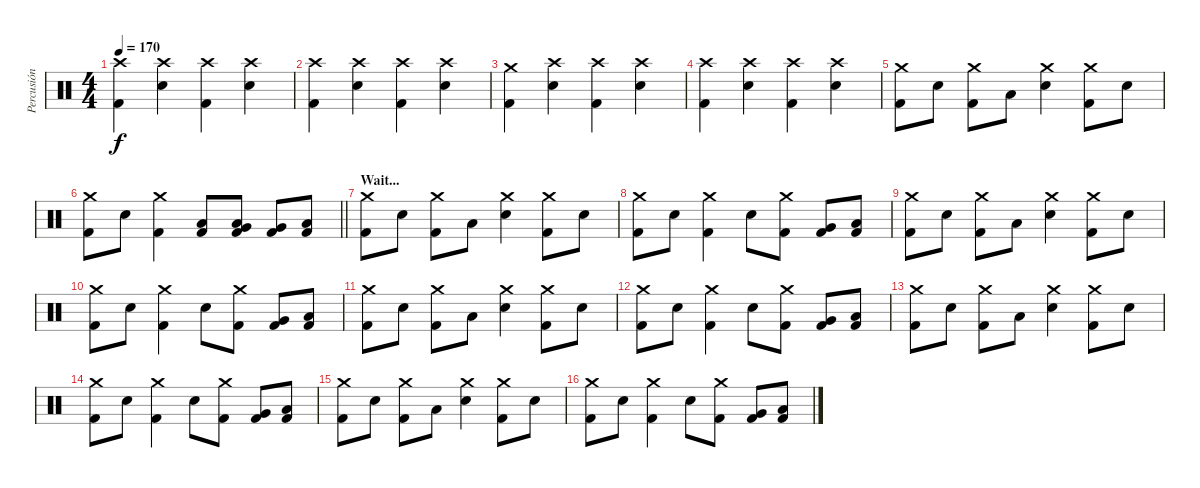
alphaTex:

\track ("Percusión" "Percusión") {instrument percussion}
\staff {score}
\articulation defaults
\ts (4 4)
\tempo 170
\clef neutral
\ks c
("Crash high (hit)" "Kick (hit) 2").4{dy f} ("Crash high (hit)" "Snare (hit) 2").4 ("Crash high (hit)" "Kick (hit) 2").4 ("Crash high (hit)" "Snare (hit) 2").4 |
("Crash high (hit)" "Kick (hit) 2").4 ("Crash high (hit)" "Snare (hit) 2").4 ("Crash high (hit)" "Kick (hit) 2").4 ("Crash high (hit)" "Snare (hit) 2").4 |
("Crash medium (hit)" "Kick (hit) 2").4 ("Crash high (hit)" "Snare (hit) 2").4 ("Crash high (hit)" "Kick (hit) 2").4 ("Crash high (hit)" "Snare (hit) 2").4 |
("Crash high (hit)" "Kick (hit) 2").4 ("Crash high (hit)" "Snare (hit) 2").4 ("Crash high (hit)" "Kick (hit) 2").4 ("Crash high (hit)" "Snare (hit) 2").4 |
("Crash medium (hit)" "Kick (hit) 2").8 "Snare (hit) 2".8 ("Crash medium (hit)" "Kick (hit) 2").8 "Low Floor Tom (hit)".8 ("Crash medium (hit)" "Snare (hit) 2").4 ("Crash medium (hit)" "Kick (hit) 2").8 "Snare (hit) 2".8 |
\barLineRight lightlight
("Crash medium (hit)" "Kick (hit) 2").8 "Snare (hit) 2".8 ("Crash medium (hit)" "Kick (hit) 2").4 ("Low Tom (hit)" "Kick (hit) 2").8 ("Low Tom (hit)" "Very Low Tom (hit)" "Kick (hit) 2").8 ("Very Low Tom (hit)" "Kick (hit) 2").8 ("Low Floor Tom (hit)" "Kick (hit) 2").8 |
\section ("" "Wait...")
("Crash medium (hit)" "Kick (hit) 2").8 "Snare (hit) 2".8 ("Crash medium (hit)" "Kick (hit) 2").8 "Low Floor Tom (hit)".8 ("Crash medium (hit)" "Snare (hit) 2").4 ("Crash medium (hit)" "Kick (hit) 2").8 "Snare (hit) 2".8 |
("Crash medium (hit)" "Kick (hit) 2").8 "Snare (hit) 2".8 ("Crash medium (hit)" "Kick (hit) 2").4 "Snare (hit) 2".8 ("Crash medium (hit)" "Kick (hit) 2").8 ("Very Low Tom (hit)" "Kick (hit) 2").8 ("Low Floor Tom (hit)" "Kick (hit) 2").8 |
("Crash medium (hit)" "Kick (hit) 2").8 "Snare (hit) 2".8 ("Crash medium (hit)" "Kick (hit) 2").8 "Low Floor Tom (hit)".8 ("Crash medium (hit)" "Snare (hit) 2").4 ("Crash medium (hit)" "Kick (hit) 2").8 "Snare (hit) 2".8 |
("Crash medium (hit)" "Kick (hit) 2").8 "Snare (hit) 2".8 ("Crash medium (hit)" "Kick (hit) 2").4 "Snare (hit) 2".8 ("Crash medium (hit)" "Kick (hit) 2").8 ("Very Low Tom (hit)" "Kick (hit) 2").8 ("Low Floor Tom (hit)" "Kick (hit) 2").8 |
("Crash medium (hit)" "Kick (hit) 2").8 "Snare (hit) 2".8 ("Crash medium (hit)" "Kick (hit) 2").8 "Low Floor Tom (hit)".8 ("Crash medium (hit)" "Snare (hit) 2").4 ("Crash medium (hit)" "Kick (hit) 2").8 "Snare (hit) 2".8 |
("Crash medium (hit)" "Kick (hit) 2").8 "Snare (hit) 2".8 ("Crash medium (hit)" "Kick (hit) 2").4 "Snare (hit) 2".8 ("Crash medium (hit)" "Kick (hit) 2").8 ("Very Low Tom (hit)" "Kick (hit) 2").8 ("Low Floor Tom (hit)" "Kick (hit) 2").8 |
("Crash medium (hit)" "Kick (hit) 2").8 "Snare (hit) 2".8 ("Crash medium (hit)" "Kick (hit) 2").8 "Low Floor Tom (hit)".8 ("Crash medium (hit)" "Snare (hit) 2").4 ("Crash medium (hit)" "Kick (hit) 2").8 "Snare (hit) 2".8 |
("Crash medium (hit)" "Kick (hit) 2").8 "Snare (hit) 2".8 ("Crash medium (hit)" "Kick (hit) 2").4 "Snare (hit) 2".8 ("Crash medium (hit)" "Kick (hit) 2").8 ("Very Low Tom (hit)" "Kick (hit) 2").8 ("Low Floor Tom (hit)" "Kick (hit) 2").8 |
("Crash medium (hit)" "Kick (hit) 2").8 "Snare (hit) 2".8 ("Crash medium (hit)" "Kick (hit) 2").8 "Low Floor Tom (hit)".8 ("Crash medium (hit)" "Snare (hit) 2").4 ("Crash medium (hit)" "Kick (hit) 2").8 "Snare (hit) 2".8 |
("Crash medium (hit)" "Kick (hit) 2").8 "Snare (hit) 2".8 ("Crash medium (hit)" "Kick (hit) 2").4 "Snare (hit) 2".8 ("Crash medium (hit)" "Kick (hit) 2").8 ("Very Low Tom (hit)" "Kick (hit) 2").8 ("Low Floor Tom (hit)" "Kick (hit) 2").8
